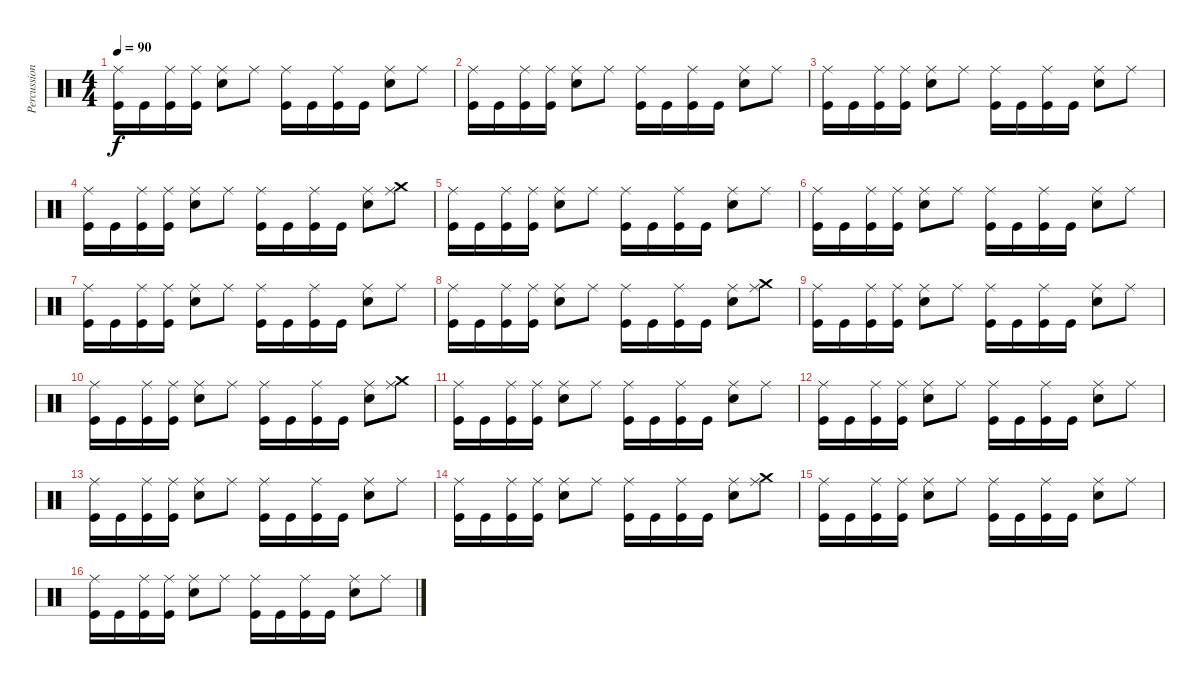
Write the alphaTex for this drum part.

\track ("Percussions" "Percussion") {instrument percussion}
\staff {score}
\articulation defaults
\ts (4 4)
\tempo 90
\clef neutral
\ks c
("Ride (middle)" "Kick (hit)").16{dy f} "Kick (hit)".16 ("Ride (middle)" "Kick (hit)").16 ("Ride (middle)" "Kick (hit)").16 ("Ride (middle)" "Electric Snare (hit)").8 "Ride (middle)".8 ("Ride (middle)" "Kick (hit)").16 "Kick (hit)".16 ("Ride (middle)" "Kick (hit)").16 "Kick (hit)".16 ("Ride (middle)" "Electric Snare (hit)").8 "Ride (middle)".8 |
("Ride (middle)" "Kick (hit)").16 "Kick (hit)".16 ("Ride (middle)" "Kick (hit)").16 ("Ride (middle)" "Kick (hit)").16 ("Ride (middle)" "Electric Snare (hit)").8 "Ride (middle)".8 ("Ride (middle)" "Kick (hit)").16 "Kick (hit)".16 ("Ride (middle)" "Kick (hit)").16 "Kick (hit)".16 ("Ride (middle)" "Electric Snare (hit)").8 "Ride (middle)".8 |
("Ride (middle)" "Kick (hit)").16 "Kick (hit)".16 ("Ride (middle)" "Kick (hit)").16 ("Ride (middle)" "Kick (hit)").16 ("Ride (middle)" "Electric Snare (hit)").8 "Ride (middle)".8 ("Ride (middle)" "Kick (hit)").16 "Kick (hit)".16 ("Ride (middle)" "Kick (hit)").16 "Kick (hit)".16 ("Ride (middle)" "Electric Snare (hit)").8 "Ride (middle)".8 |
("Ride (middle)" "Kick (hit)").16 "Kick (hit)".16 ("Ride (middle)" "Kick (hit)").16 ("Ride (middle)" "Kick (hit)").16 ("Ride (middle)" "Electric Snare (hit)").8 "Ride (middle)".8 ("Ride (middle)" "Kick (hit)").16 "Kick (hit)".16 ("Ride (middle)" "Kick (hit)").16 "Kick (hit)".16 ("Ride (middle)" "Electric Snare (hit)").8 ("Ride (middle)" "Crash medium (hit)").8 |
("Ride (middle)" "Kick (hit)").16 "Kick (hit)".16 ("Ride (middle)" "Kick (hit)").16 ("Ride (middle)" "Kick (hit)").16 ("Ride (middle)" "Electric Snare (hit)").8 "Ride (middle)".8 ("Ride (middle)" "Kick (hit)").16 "Kick (hit)".16 ("Ride (middle)" "Kick (hit)").16 "Kick (hit)".16 ("Ride (middle)" "Electric Snare (hit)").8 "Ride (middle)".8 |
("Ride (middle)" "Kick (hit)").16 "Kick (hit)".16 ("Ride (middle)" "Kick (hit)").16 ("Ride (middle)" "Kick (hit)").16 ("Ride (middle)" "Electric Snare (hit)").8 "Ride (middle)".8 ("Ride (middle)" "Kick (hit)").16 "Kick (hit)".16 ("Ride (middle)" "Kick (hit)").16 "Kick (hit)".16 ("Ride (middle)" "Electric Snare (hit)").8 "Ride (middle)".8 |
("Ride (middle)" "Kick (hit)").16 "Kick (hit)".16 ("Ride (middle)" "Kick (hit)").16 ("Ride (middle)" "Kick (hit)").16 ("Ride (middle)" "Electric Snare (hit)").8 "Ride (middle)".8 ("Ride (middle)" "Kick (hit)").16 "Kick (hit)".16 ("Ride (middle)" "Kick (hit)").16 "Kick (hit)".16 ("Ride (middle)" "Electric Snare (hit)").8 "Ride (middle)".8 |
("Ride (middle)" "Kick (hit)").16 "Kick (hit)".16 ("Ride (middle)" "Kick (hit)").16 ("Ride (middle)" "Kick (hit)").16 ("Ride (middle)" "Electric Snare (hit)").8 "Ride (middle)".8 ("Ride (middle)" "Kick (hit)").16 "Kick (hit)".16 ("Ride (middle)" "Kick (hit)").16 "Kick (hit)".16 ("Ride (middle)" "Electric Snare (hit)").8 ("Ride (middle)" "Crash medium (hit)").8 |
("Ride (middle)" "Kick (hit)").16 "Kick (hit)".16 ("Ride (middle)" "Kick (hit)").16 ("Ride (middle)" "Kick (hit)").16 ("Ride (middle)" "Electric Snare (hit)").8 "Ride (middle)".8 ("Ride (middle)" "Kick (hit)").16 "Kick (hit)".16 ("Ride (middle)" "Kick (hit)").16 "Kick (hit)".16 ("Ride (middle)" "Electric Snare (hit)").8 "Ride (middle)".8 |
("Ride (middle)" "Kick (hit)").16 "Kick (hit)".16 ("Ride (middle)" "Kick (hit)").16 ("Ride (middle)" "Kick (hit)").16 ("Ride (middle)" "Electric Snare (hit)").8 "Ride (middle)".8 ("Ride (middle)" "Kick (hit)").16 "Kick (hit)".16 ("Ride (middle)" "Kick (hit)").16 "Kick (hit)".16 ("Ride (middle)" "Electric Snare (hit)").8 ("Ride (middle)" "Crash medium (hit)").8 |
("Ride (middle)" "Kick (hit)").16 "Kick (hit)".16 ("Ride (middle)" "Kick (hit)").16 ("Ride (middle)" "Kick (hit)").16 ("Ride (middle)" "Electric Snare (hit)").8 "Ride (middle)".8 ("Ride (middle)" "Kick (hit)").16 "Kick (hit)".16 ("Ride (middle)" "Kick (hit)").16 "Kick (hit)".16 ("Ride (middle)" "Electric Snare (hit)").8 "Ride (middle)".8 |
("Ride (middle)" "Kick (hit)").16 "Kick (hit)".16 ("Ride (middle)" "Kick (hit)").16 ("Ride (middle)" "Kick (hit)").16 ("Ride (middle)" "Electric Snare (hit)").8 "Ride (middle)".8 ("Ride (middle)" "Kick (hit)").16 "Kick (hit)".16 ("Ride (middle)" "Kick (hit)").16 "Kick (hit)".16 ("Ride (middle)" "Electric Snare (hit)").8 "Ride (middle)".8 |
("Ride (middle)" "Kick (hit)").16 "Kick (hit)".16 ("Ride (middle)" "Kick (hit)").16 ("Ride (middle)" "Kick (hit)").16 ("Ride (middle)" "Electric Snare (hit)").8 "Ride (middle)".8 ("Ride (middle)" "Kick (hit)").16 "Kick (hit)".16 ("Ride (middle)" "Kick (hit)").16 "Kick (hit)".16 ("Ride (middle)" "Electric Snare (hit)").8 "Ride (middle)".8 |
("Ride (middle)" "Kick (hit)").16 "Kick (hit)".16 ("Ride (middle)" "Kick (hit)").16 ("Ride (middle)" "Kick (hit)").16 ("Ride (middle)" "Electric Snare (hit)").8 "Ride (middle)".8 ("Ride (middle)" "Kick (hit)").16 "Kick (hit)".16 ("Ride (middle)" "Kick (hit)").16 "Kick (hit)".16 ("Ride (middle)" "Electric Snare (hit)").8 ("Ride (middle)" "Crash medium (hit)").8 |
("Ride (middle)" "Kick (hit)").16 "Kick (hit)".16 ("Ride (middle)" "Kick (hit)").16 ("Ride (middle)" "Kick (hit)").16 ("Ride (middle)" "Electric Snare (hit)").8 "Ride (middle)".8 ("Ride (middle)" "Kick (hit)").16 "Kick (hit)".16 ("Ride (middle)" "Kick (hit)").16 "Kick (hit)".16 ("Ride (middle)" "Electric Snare (hit)").8 "Ride (middle)".8 |
("Ride (middle)" "Kick (hit)").16 "Kick (hit)".16 ("Ride (middle)" "Kick (hit)").16 ("Ride (middle)" "Kick (hit)").16 ("Ride (middle)" "Electric Snare (hit)").8 "Ride (middle)".8 ("Ride (middle)" "Kick (hit)").16 "Kick (hit)".16 ("Ride (middle)" "Kick (hit)").16 "Kick (hit)".16 ("Ride (middle)" "Electric Snare (hit)").8 "Ride (middle)".8
